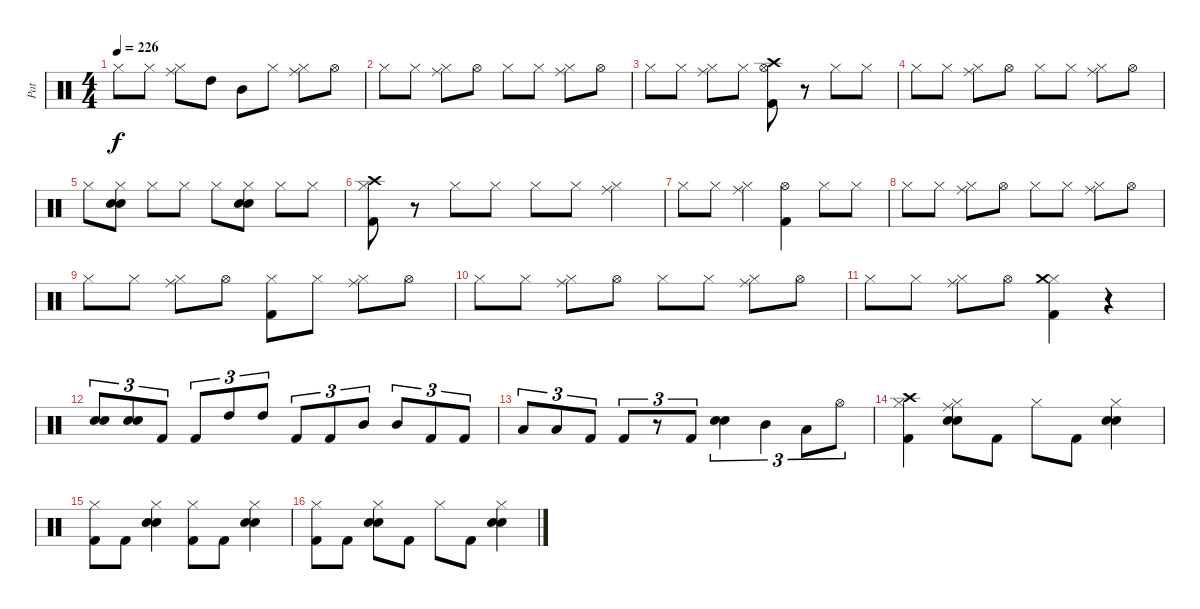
\track ("Pat" "Pat") {instrument percussion}
\staff {score}
\articulation defaults
\ts (4 4)
\tempo 226
\clef neutral
\ks c "Hi-Hat (closed)".8{dy f} "Hi-Hat (closed)".8
("Hi-Hat (closed)" "Ride (middle)").8 "High Tom (hit)".8 "Mid Tom (hit)".8 "Hi-Hat (closed)".8 ("Hi-Hat (closed)" "Ride (middle)").8 "Hi-Hat (open)".8 |
"Hi-Hat (closed)".8 "Hi-Hat (closed)".8 ("Hi-Hat (closed)" "Ride (middle)").8 "Hi-Hat (open)".8 "Hi-Hat (closed)".8 "Hi-Hat (closed)".8 ("Hi-Hat (closed)" "Ride (middle)").8 "Hi-Hat (open)".8 |
"Hi-Hat (closed)".8 "Hi-Hat (closed)".8 ("Hi-Hat (closed)" "Ride (middle)").8 "Hi-Hat (closed)".8 ("Hi-Hat (open)" "Crash high (hit)" "Kick (hit) 2").8 r.8 "Hi-Hat (closed)".8 "Hi-Hat (closed)".8 |
"Hi-Hat (closed)".8 "Hi-Hat (closed)".8 ("Hi-Hat (closed)" "Ride (middle)").8 "Hi-Hat (open)".8 "Hi-Hat (closed)".8 "Hi-Hat (closed)".8 ("Hi-Hat (closed)" "Ride (middle)").8 "Hi-Hat (open)".8 |
"Hi-Hat (closed)".8 ("Hi-Hat (closed)" "Snare (hit) 2" "Electric Snare (hit)").8 "Hi-Hat (closed)".8 "Hi-Hat (closed)".8 "Hi-Hat (closed)".8 ("Hi-Hat (closed)" "Snare (hit) 2" "Electric Snare (hit)").8 "Hi-Hat (closed)".8 "Hi-Hat (closed)".8 |
("Hi-Hat (closed)" "Crash high (hit)" "Kick (hit) 2").8 r.8 "Hi-Hat (closed)".8 "Hi-Hat (closed)".8 "Hi-Hat (closed)".8 "Hi-Hat (closed)".8 ("Hi-Hat (closed)" "Ride (middle)").4 |
"Hi-Hat (closed)".8 "Hi-Hat (closed)".8 ("Hi-Hat (closed)" "Ride (middle)").4 ("Hi-Hat (open)" "Kick (hit) 2").4 "Hi-Hat (closed)".8 "Hi-Hat (closed)".8 |
"Hi-Hat (closed)".8 "Hi-Hat (closed)".8 ("Hi-Hat (closed)" "Ride (middle)").8 "Hi-Hat (open)".8 "Hi-Hat (closed)".8 "Hi-Hat (closed)".8 ("Hi-Hat (closed)" "Ride (middle)").8 "Hi-Hat (open)".8 |
"Hi-Hat (closed)".8 "Hi-Hat (closed)".8 ("Hi-Hat (closed)" "Ride (middle)").8 "Hi-Hat (open)".8 ("Hi-Hat (closed)" "Kick (hit) 2").8 "Hi-Hat (closed)".8 ("Hi-Hat (closed)" "Ride (middle)").8 "Hi-Hat (open)".8 |
"Hi-Hat (closed)".8 "Hi-Hat (closed)".8 ("Hi-Hat (closed)" "Ride (middle)").8 "Hi-Hat (open)".8 "Hi-Hat (closed)".8 "Hi-Hat (closed)".8 ("Hi-Hat (closed)" "Ride (middle)").8 "Hi-Hat (open)".8 |
"Hi-Hat (closed)".8 "Hi-Hat (closed)".8 ("Hi-Hat (closed)" "Ride (middle)").8 "Hi-Hat (open)".8 ("Hi-Hat (closed)" "Crash medium (hit)" "Kick (hit) 2").4 r.4 |
("Snare (hit) 2" "Electric Snare (hit)").8{tu (3 2)} ("Snare (hit) 2" "Electric Snare (hit)").8{tu (3 2)} "Kick (hit) 2".8{tu (3 2)} "Kick (hit) 2".8{tu (3 2)} "High Tom (hit)".8{tu (3 2)} "High Tom (hit)".8{tu (3 2)} "Kick (hit) 2".8{tu (3 2)} "Kick (hit) 2".8{tu (3 2)} "Mid Tom (hit)".8{tu (3 2)} "Mid Tom (hit)".8{tu (3 2)} "Kick (hit) 2".8{tu (3 2)} "Kick (hit) 2".8{tu (3 2)} |
"Low Tom (hit)".8{tu (3 2)} "Low Tom (hit)".8{tu (3 2)} "Kick (hit) 2".8{tu (3 2)} "Kick (hit) 2".8{tu (3 2)} r.8{tu (3 2)} "Kick (hit) 2".8{tu (3 2)} ("Snare (hit) 2" "Electric Snare (hit)").4{tu (3 2)} "Mid Tom (hit)".4{tu (3 2)} "Low Tom (hit)".8{tu (3 2)} "Hi-Hat (open)".8{tu (3 2)} |
("Hi-Hat (closed)" "Crash high (hit)" "Kick (hit) 2").4 ("Hi-Hat (closed)" "Ride (middle)" "Snare (hit) 2" "Electric Snare (hit)").8 "Kick (hit) 2".8 "Hi-Hat (closed)".8 "Kick (hit) 2".8 ("Hi-Hat (closed)" "Snare (hit) 2" "Electric Snare (hit)").4 |
("Hi-Hat (closed)" "Kick (hit) 2").8 "Kick (hit) 2".8 ("Hi-Hat (closed)" "Snare (hit) 2" "Electric Snare (hit)").4 ("Hi-Hat (closed)" "Kick (hit) 2").8 "Kick (hit) 2".8 ("Hi-Hat (closed)" "Snare (hit) 2" "Electric Snare (hit)").4 |
("Hi-Hat (closed)" "Kick (hit) 2").8 "Kick (hit) 2".8 ("Hi-Hat (closed)" "Snare (hit) 2" "Electric Snare (hit)").8 "Kick (hit) 2".8 "Hi-Hat (closed)".8 "Kick (hit) 2".8 ("Hi-Hat (closed)" "Snare (hit) 2" "Electric Snare (hit)").4
